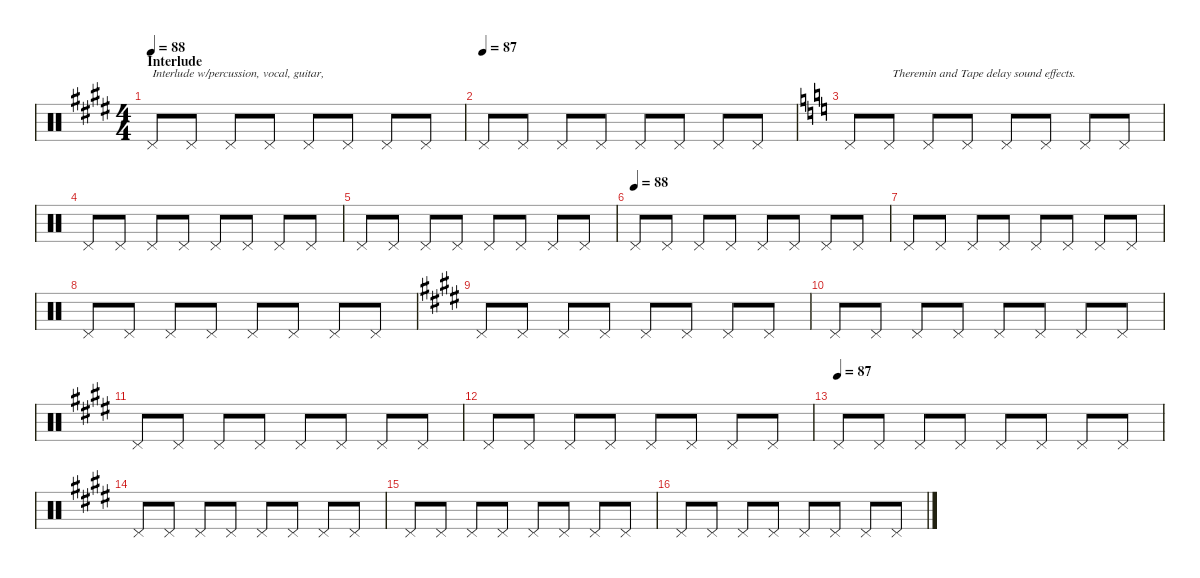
\defaultSystemsLayout 4
\hideDynamics
\bracketExtendMode nobrackets
\singleTrackTrackNamePolicy hidden
\multiTrackTrackNamePolicy hidden
\firstSystemTrackNameMode fullname
\firstSystemTrackNameOrientation horizontal
\otherSystemsTrackNameOrientation horizontal
\track ("Drums" "drm.") {defaultSystemsLayout 4 instrument percussion}
\staff {score}
\articulation defaults
\ts (4 4)
\section ("" "Interlude")
\tempo 88
\clef neutral
\ks e "Pedal Hi-Hat (hit)"{acc forcenatural}.8{txt "Interlude w/percussion, vocal, guitar," dy mp beam Up} "Pedal Hi-Hat (hit)"{acc forcenatural}.8{beam Up} "Pedal Hi-Hat (hit)"{acc forcenatural}.8{beam Up} "Pedal Hi-Hat (hit)"{acc forcenatural}.8{beam Up} "Pedal Hi-Hat (hit)"{acc forcenatural}.8{beam Up} "Pedal Hi-Hat (hit)"{acc forcenatural}.8{beam Up} "Pedal Hi-Hat (hit)"{acc forcenatural}.8{beam Up} "Pedal Hi-Hat (hit)"{acc forcenatural}.8{beam Up}
|
\tempo (87)
"Pedal Hi-Hat (hit)"{acc forcenatural}.8{beam Up} "Pedal Hi-Hat (hit)"{acc forcenatural}.8{beam Up} "Pedal Hi-Hat (hit)"{acc forcenatural}.8{beam Up} "Pedal Hi-Hat (hit)"{acc forcenatural}.8{beam Up} "Pedal Hi-Hat (hit)"{acc forcenatural}.8{beam Up} "Pedal Hi-Hat (hit)"{acc forcenatural}.8{beam Up} "Pedal Hi-Hat (hit)"{acc forcenatural}.8{beam Up} "Pedal Hi-Hat (hit)"{acc forcenatural}.8{beam Up} |
\ks c "Pedal Hi-Hat (hit)".8{beam Up} "Pedal Hi-Hat (hit)".8{txt " Theremin and Tape delay sound effects." beam Up} "Pedal Hi-Hat (hit)".8{beam Up} "Pedal Hi-Hat (hit)".8{beam Up} "Pedal Hi-Hat (hit)".8{beam Up} "Pedal Hi-Hat (hit)".8{beam Up} "Pedal Hi-Hat (hit)".8{beam Up} "Pedal Hi-Hat (hit)".8{beam Up}
|
"Pedal Hi-Hat (hit)".8{beam Up} "Pedal Hi-Hat (hit)".8{beam Up} "Pedal Hi-Hat (hit)".8{beam Up} "Pedal Hi-Hat (hit)".8{beam Up} "Pedal Hi-Hat (hit)".8{beam Up} "Pedal Hi-Hat (hit)".8{beam Up} "Pedal Hi-Hat (hit)".8{beam Up} "Pedal Hi-Hat (hit)".8{beam Up} |
"Pedal Hi-Hat (hit)".8{beam Up} "Pedal Hi-Hat (hit)".8{beam Up} "Pedal Hi-Hat (hit)".8{beam Up} "Pedal Hi-Hat (hit)".8{beam Up} "Pedal Hi-Hat (hit)".8{beam Up} "Pedal Hi-Hat (hit)".8{beam Up} "Pedal Hi-Hat (hit)".8{beam Up} "Pedal Hi-Hat (hit)".8{beam Up} |
\tempo (88)
"Pedal Hi-Hat (hit)".8{beam Up} "Pedal Hi-Hat (hit)".8{beam Up} "Pedal Hi-Hat (hit)".8{beam Up} "Pedal Hi-Hat (hit)".8{beam Up} "Pedal Hi-Hat (hit)".8{beam Up} "Pedal Hi-Hat (hit)".8{beam Up} "Pedal Hi-Hat (hit)".8{beam Up} "Pedal Hi-Hat (hit)".8{beam Up} |
"Pedal Hi-Hat (hit)".8{beam Up} "Pedal Hi-Hat (hit)".8{beam Up} "Pedal Hi-Hat (hit)".8{beam Up} "Pedal Hi-Hat (hit)".8{beam Up} "Pedal Hi-Hat (hit)".8{beam Up} "Pedal Hi-Hat (hit)".8{beam Up} "Pedal Hi-Hat (hit)".8{beam Up} "Pedal Hi-Hat (hit)".8{beam Up} |
"Pedal Hi-Hat (hit)".8{beam Up} "Pedal Hi-Hat (hit)".8{beam Up} "Pedal Hi-Hat (hit)".8{beam Up} "Pedal Hi-Hat (hit)".8{beam Up} "Pedal Hi-Hat (hit)".8{beam Up} "Pedal Hi-Hat (hit)".8{beam Up} "Pedal Hi-Hat (hit)".8{beam Up} "Pedal Hi-Hat (hit)".8{beam Up} |
\ks e "Pedal Hi-Hat (hit)"{acc forcenatural}.8{beam Up} "Pedal Hi-Hat (hit)"{acc forcenatural}.8{beam Up} "Pedal Hi-Hat (hit)"{acc forcenatural}.8{beam Up} "Pedal Hi-Hat (hit)"{acc forcenatural}.8{beam Up} "Pedal Hi-Hat (hit)"{acc forcenatural}.8{beam Up} "Pedal Hi-Hat (hit)"{acc forcenatural}.8{beam Up} "Pedal Hi-Hat (hit)"{acc forcenatural}.8{beam Up} "Pedal Hi-Hat (hit)"{acc forcenatural}.8{beam Up}
|
"Pedal Hi-Hat (hit)"{acc forcenatural}.8{beam Up} "Pedal Hi-Hat (hit)"{acc forcenatural}.8{beam Up} "Pedal Hi-Hat (hit)"{acc forcenatural}.8{beam Up} "Pedal Hi-Hat (hit)"{acc forcenatural}.8{beam Up} "Pedal Hi-Hat (hit)"{acc forcenatural}.8{beam Up} "Pedal Hi-Hat (hit)"{acc forcenatural}.8{beam Up} "Pedal Hi-Hat (hit)"{acc forcenatural}.8{beam Up} "Pedal Hi-Hat (hit)"{acc forcenatural}.8{beam Up} |
"Pedal Hi-Hat (hit)"{acc forcenatural}.8{beam Up} "Pedal Hi-Hat (hit)"{acc forcenatural}.8{beam Up} "Pedal Hi-Hat (hit)"{acc forcenatural}.8{beam Up} "Pedal Hi-Hat (hit)"{acc forcenatural}.8{beam Up} "Pedal Hi-Hat (hit)"{acc forcenatural}.8{beam Up} "Pedal Hi-Hat (hit)"{acc forcenatural}.8{beam Up} "Pedal Hi-Hat (hit)"{acc forcenatural}.8{beam Up} "Pedal Hi-Hat (hit)"{acc forcenatural}.8{beam Up} |
"Pedal Hi-Hat (hit)"{acc forcenatural}.8{beam Up} "Pedal Hi-Hat (hit)"{acc forcenatural}.8{beam Up} "Pedal Hi-Hat (hit)"{acc forcenatural}.8{beam Up} "Pedal Hi-Hat (hit)"{acc forcenatural}.8{beam Up} "Pedal Hi-Hat (hit)"{acc forcenatural}.8{beam Up} "Pedal Hi-Hat (hit)"{acc forcenatural}.8{beam Up} "Pedal Hi-Hat (hit)"{acc forcenatural}.8{beam Up} "Pedal Hi-Hat (hit)"{acc forcenatural}.8{beam Up} |
\tempo (87)
"Pedal Hi-Hat (hit)"{acc forcenatural}.8{beam Up} "Pedal Hi-Hat (hit)"{acc forcenatural}.8{beam Up} "Pedal Hi-Hat (hit)"{acc forcenatural}.8{beam Up} "Pedal Hi-Hat (hit)"{acc forcenatural}.8{beam Up} "Pedal Hi-Hat (hit)"{acc forcenatural}.8{beam Up} "Pedal Hi-Hat (hit)"{acc forcenatural}.8{beam Up} "Pedal Hi-Hat (hit)"{acc forcenatural}.8{beam Up} "Pedal Hi-Hat (hit)"{acc forcenatural}.8{beam Up} |
"Pedal Hi-Hat (hit)"{acc forcenatural}.8{beam Up} "Pedal Hi-Hat (hit)"{acc forcenatural}.8{beam Up} "Pedal Hi-Hat (hit)"{acc forcenatural}.8{beam Up} "Pedal Hi-Hat (hit)"{acc forcenatural}.8{beam Up} "Pedal Hi-Hat (hit)"{acc forcenatural}.8{beam Up} "Pedal Hi-Hat (hit)"{acc forcenatural}.8{beam Up} "Pedal Hi-Hat (hit)"{acc forcenatural}.8{beam Up} "Pedal Hi-Hat (hit)"{acc forcenatural}.8{beam Up} |
"Pedal Hi-Hat (hit)"{acc forcenatural}.8{beam Up} "Pedal Hi-Hat (hit)"{acc forcenatural}.8{beam Up} "Pedal Hi-Hat (hit)"{acc forcenatural}.8{beam Up} "Pedal Hi-Hat (hit)"{acc forcenatural}.8{beam Up} "Pedal Hi-Hat (hit)"{acc forcenatural}.8{beam Up} "Pedal Hi-Hat (hit)"{acc forcenatural}.8{beam Up} "Pedal Hi-Hat (hit)"{acc forcenatural}.8{beam Up} "Pedal Hi-Hat (hit)"{acc forcenatural}.8{beam Up} |
"Pedal Hi-Hat (hit)"{acc forcenatural}.8{dy p beam Up} "Pedal Hi-Hat (hit)"{acc forcenatural}.8{beam Up} "Pedal Hi-Hat (hit)"{acc forcenatural}.8{dy pp beam Up} "Pedal Hi-Hat (hit)"{acc forcenatural}.8{beam Up} "Pedal Hi-Hat (hit)"{acc forcenatural}.8{dy p beam Up} "Pedal Hi-Hat (hit)"{acc forcenatural}.8{beam Up} "Pedal Hi-Hat (hit)"{acc forcenatural}.8{dy mp beam Up} "Pedal Hi-Hat (hit)"{acc forcenatural}.8{beam Up}
